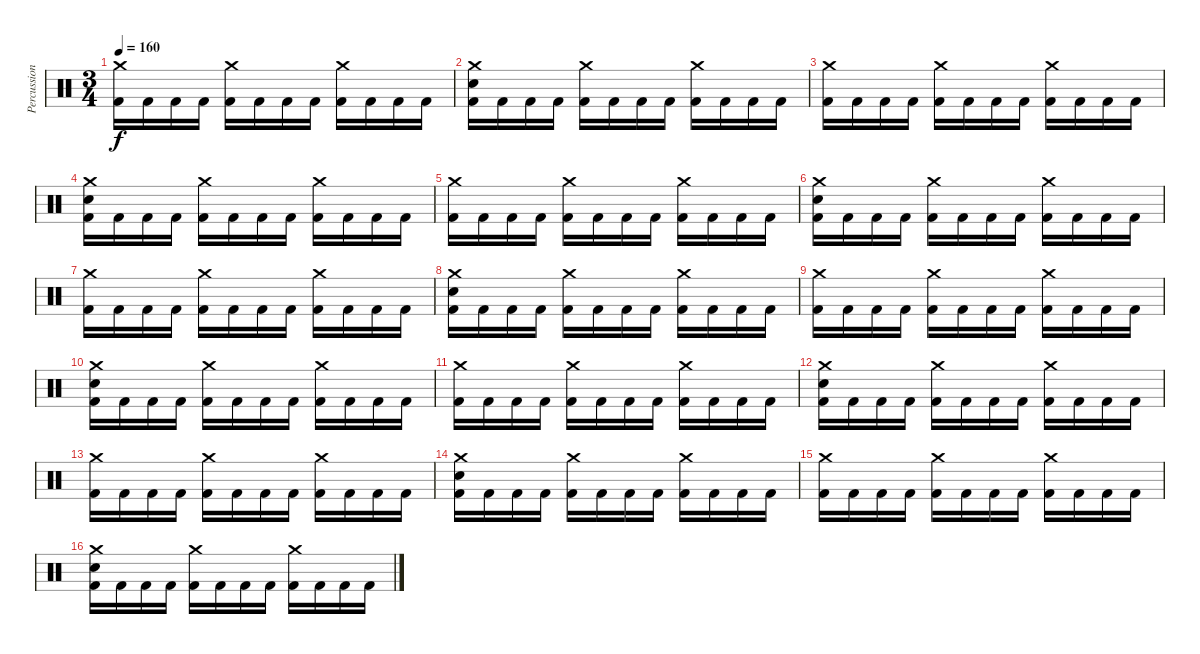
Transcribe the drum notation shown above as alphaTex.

\track ("Percussion" "Percussion") {instrument percussion}
\staff {score}
\articulation defaults
\ts (3 4)
\tempo 160
\clef neutral
\ks c
("Crash medium (hit)" "Kick (hit) 2").16{dy f} "Kick (hit) 2".16 "Kick (hit) 2".16 "Kick (hit) 2".16 ("Crash medium (hit)" "Kick (hit) 2").16 "Kick (hit) 2".16 "Kick (hit) 2".16 "Kick (hit) 2".16 ("Crash medium (hit)" "Kick (hit) 2").16 "Kick (hit) 2".16 "Kick (hit) 2".16 "Kick (hit) 2".16 |
("Crash medium (hit)" "Electric Snare (hit)" "Kick (hit) 2").16 "Kick (hit) 2".16 "Kick (hit) 2".16 "Kick (hit) 2".16 ("Crash medium (hit)" "Kick (hit) 2").16 "Kick (hit) 2".16 "Kick (hit) 2".16 "Kick (hit) 2".16 ("Crash medium (hit)" "Kick (hit) 2").16 "Kick (hit) 2".16 "Kick (hit) 2".16 "Kick (hit) 2".16 |
("Crash medium (hit)" "Kick (hit) 2").16 "Kick (hit) 2".16 "Kick (hit) 2".16 "Kick (hit) 2".16 ("Crash medium (hit)" "Kick (hit) 2").16 "Kick (hit) 2".16 "Kick (hit) 2".16 "Kick (hit) 2".16 ("Crash medium (hit)" "Kick (hit) 2").16 "Kick (hit) 2".16 "Kick (hit) 2".16 "Kick (hit) 2".16 |
("Crash medium (hit)" "Electric Snare (hit)" "Kick (hit) 2").16 "Kick (hit) 2".16 "Kick (hit) 2".16 "Kick (hit) 2".16 ("Crash medium (hit)" "Kick (hit) 2").16 "Kick (hit) 2".16 "Kick (hit) 2".16 "Kick (hit) 2".16 ("Crash medium (hit)" "Kick (hit) 2").16 "Kick (hit) 2".16 "Kick (hit) 2".16 "Kick (hit) 2".16 |
("Crash medium (hit)" "Kick (hit) 2").16 "Kick (hit) 2".16 "Kick (hit) 2".16 "Kick (hit) 2".16 ("Crash medium (hit)" "Kick (hit) 2").16 "Kick (hit) 2".16 "Kick (hit) 2".16 "Kick (hit) 2".16 ("Crash medium (hit)" "Kick (hit) 2").16 "Kick (hit) 2".16 "Kick (hit) 2".16 "Kick (hit) 2".16 |
("Crash medium (hit)" "Electric Snare (hit)" "Kick (hit) 2").16 "Kick (hit) 2".16 "Kick (hit) 2".16 "Kick (hit) 2".16 ("Crash medium (hit)" "Kick (hit) 2").16 "Kick (hit) 2".16 "Kick (hit) 2".16 "Kick (hit) 2".16 ("Crash medium (hit)" "Kick (hit) 2").16 "Kick (hit) 2".16 "Kick (hit) 2".16 "Kick (hit) 2".16 |
("Crash medium (hit)" "Kick (hit) 2").16 "Kick (hit) 2".16 "Kick (hit) 2".16 "Kick (hit) 2".16 ("Crash medium (hit)" "Kick (hit) 2").16 "Kick (hit) 2".16 "Kick (hit) 2".16 "Kick (hit) 2".16 ("Crash medium (hit)" "Kick (hit) 2").16 "Kick (hit) 2".16 "Kick (hit) 2".16 "Kick (hit) 2".16 |
("Crash medium (hit)" "Electric Snare (hit)" "Kick (hit) 2").16 "Kick (hit) 2".16 "Kick (hit) 2".16 "Kick (hit) 2".16 ("Crash medium (hit)" "Kick (hit) 2").16 "Kick (hit) 2".16 "Kick (hit) 2".16 "Kick (hit) 2".16 ("Crash medium (hit)" "Kick (hit) 2").16 "Kick (hit) 2".16 "Kick (hit) 2".16 "Kick (hit) 2".16 |
("Crash medium (hit)" "Kick (hit) 2").16 "Kick (hit) 2".16 "Kick (hit) 2".16 "Kick (hit) 2".16 ("Crash medium (hit)" "Kick (hit) 2").16 "Kick (hit) 2".16 "Kick (hit) 2".16 "Kick (hit) 2".16 ("Crash medium (hit)" "Kick (hit) 2").16 "Kick (hit) 2".16 "Kick (hit) 2".16 "Kick (hit) 2".16 |
("Crash medium (hit)" "Electric Snare (hit)" "Kick (hit) 2").16 "Kick (hit) 2".16 "Kick (hit) 2".16 "Kick (hit) 2".16 ("Crash medium (hit)" "Kick (hit) 2").16 "Kick (hit) 2".16 "Kick (hit) 2".16 "Kick (hit) 2".16 ("Crash medium (hit)" "Kick (hit) 2").16 "Kick (hit) 2".16 "Kick (hit) 2".16 "Kick (hit) 2".16 |
("Crash medium (hit)" "Kick (hit) 2").16 "Kick (hit) 2".16 "Kick (hit) 2".16 "Kick (hit) 2".16 ("Crash medium (hit)" "Kick (hit) 2").16 "Kick (hit) 2".16 "Kick (hit) 2".16 "Kick (hit) 2".16 ("Crash medium (hit)" "Kick (hit) 2").16 "Kick (hit) 2".16 "Kick (hit) 2".16 "Kick (hit) 2".16 |
("Crash medium (hit)" "Electric Snare (hit)" "Kick (hit) 2").16 "Kick (hit) 2".16 "Kick (hit) 2".16 "Kick (hit) 2".16 ("Crash medium (hit)" "Kick (hit) 2").16 "Kick (hit) 2".16 "Kick (hit) 2".16 "Kick (hit) 2".16 ("Crash medium (hit)" "Kick (hit) 2").16 "Kick (hit) 2".16 "Kick (hit) 2".16 "Kick (hit) 2".16 |
("Crash medium (hit)" "Kick (hit) 2").16 "Kick (hit) 2".16 "Kick (hit) 2".16 "Kick (hit) 2".16 ("Crash medium (hit)" "Kick (hit) 2").16 "Kick (hit) 2".16 "Kick (hit) 2".16 "Kick (hit) 2".16 ("Crash medium (hit)" "Kick (hit) 2").16 "Kick (hit) 2".16 "Kick (hit) 2".16 "Kick (hit) 2".16 |
("Crash medium (hit)" "Electric Snare (hit)" "Kick (hit) 2").16 "Kick (hit) 2".16 "Kick (hit) 2".16 "Kick (hit) 2".16 ("Crash medium (hit)" "Kick (hit) 2").16 "Kick (hit) 2".16 "Kick (hit) 2".16 "Kick (hit) 2".16 ("Crash medium (hit)" "Kick (hit) 2").16 "Kick (hit) 2".16 "Kick (hit) 2".16 "Kick (hit) 2".16 |
("Crash medium (hit)" "Kick (hit) 2").16 "Kick (hit) 2".16 "Kick (hit) 2".16 "Kick (hit) 2".16 ("Crash medium (hit)" "Kick (hit) 2").16 "Kick (hit) 2".16 "Kick (hit) 2".16 "Kick (hit) 2".16 ("Crash medium (hit)" "Kick (hit) 2").16 "Kick (hit) 2".16 "Kick (hit) 2".16 "Kick (hit) 2".16 |
("Crash medium (hit)" "Electric Snare (hit)" "Kick (hit) 2").16 "Kick (hit) 2".16 "Kick (hit) 2".16 "Kick (hit) 2".16 ("Crash medium (hit)" "Kick (hit) 2").16 "Kick (hit) 2".16 "Kick (hit) 2".16 "Kick (hit) 2".16 ("Crash medium (hit)" "Kick (hit) 2").16 "Kick (hit) 2".16 "Kick (hit) 2".16 "Kick (hit) 2".16
